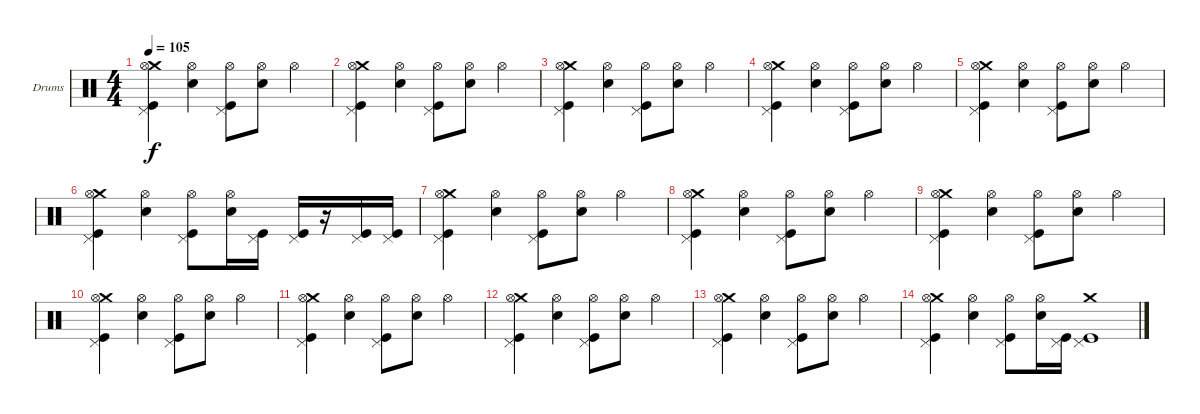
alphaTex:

\defaultSystemsLayout 4
\bracketExtendMode groupsimilarinstruments
\firstSystemTrackNameOrientation horizontal
\otherSystemsTrackNameOrientation horizontal
\track ("Е. Кулаков" "Drums") {instrument percussion}
\staff {score}
\articulation defaults
\ts (4 4)
\tempo 105
\clef neutral
\ks c
("Crash medium (hit)" "Pedal Hi-Hat (hit)" "Kick (hit)" "Hi-Hat (open)").4{dy f} ("Snare (hit) 2" "Hi-Hat (open)").4 ("Pedal Hi-Hat (hit)" "Kick (hit)" "Hi-Hat (open)").8 ("Snare (hit) 2" "Hi-Hat (open)").8 "Hi-Hat (open)".4 |
("Crash medium (hit)" "Pedal Hi-Hat (hit)" "Kick (hit)" "Hi-Hat (open)").4 ("Snare (hit) 2" "Hi-Hat (open)").4 ("Pedal Hi-Hat (hit)" "Kick (hit)" "Hi-Hat (open)").8 ("Snare (hit) 2" "Hi-Hat (open)").8 "Hi-Hat (open)".4 |
("Crash medium (hit)" "Pedal Hi-Hat (hit)" "Kick (hit)" "Hi-Hat (open)").4 ("Snare (hit) 2" "Hi-Hat (open)").4 ("Pedal Hi-Hat (hit)" "Kick (hit)" "Hi-Hat (open)").8 ("Snare (hit) 2" "Hi-Hat (open)").8 "Hi-Hat (open)".4 |
("Crash medium (hit)" "Pedal Hi-Hat (hit)" "Kick (hit)" "Hi-Hat (open)").4 ("Snare (hit) 2" "Hi-Hat (open)").4 ("Pedal Hi-Hat (hit)" "Kick (hit)" "Hi-Hat (open)").8 ("Snare (hit) 2" "Hi-Hat (open)").8 "Hi-Hat (open)".4 |
("Crash medium (hit)" "Pedal Hi-Hat (hit)" "Kick (hit)" "Hi-Hat (open)").4 ("Snare (hit) 2" "Hi-Hat (open)").4 ("Pedal Hi-Hat (hit)" "Kick (hit)" "Hi-Hat (open)").8 ("Snare (hit) 2" "Hi-Hat (open)").8 "Hi-Hat (open)".4 |
("Crash medium (hit)" "Pedal Hi-Hat (hit)" "Kick (hit)" "Hi-Hat (open)").4 ("Snare (hit) 2" "Hi-Hat (open)").4 ("Pedal Hi-Hat (hit)" "Kick (hit)" "Hi-Hat (open)").8 ("Snare (hit) 2" "Hi-Hat (open)").16 ("Pedal Hi-Hat (hit)" "Kick (hit)").16 ("Pedal Hi-Hat (hit)" "Kick (hit)").16 r.16 ("Pedal Hi-Hat (hit)" "Kick (hit)").16 ("Pedal Hi-Hat (hit)" "Kick (hit)").16 |
("Crash medium (hit)" "Pedal Hi-Hat (hit)" "Kick (hit)" "Hi-Hat (open)").4 ("Snare (hit) 2" "Hi-Hat (open)").4 ("Pedal Hi-Hat (hit)" "Kick (hit)" "Hi-Hat (open)").8 ("Snare (hit) 2" "Hi-Hat (open)").8 "Hi-Hat (open)".4 |
("Crash medium (hit)" "Pedal Hi-Hat (hit)" "Kick (hit)" "Hi-Hat (open)").4 ("Snare (hit) 2" "Hi-Hat (open)").4 ("Pedal Hi-Hat (hit)" "Kick (hit)" "Hi-Hat (open)").8 ("Snare (hit) 2" "Hi-Hat (open)").8 "Hi-Hat (open)".4 |
("Crash medium (hit)" "Pedal Hi-Hat (hit)" "Kick (hit)" "Hi-Hat (open)").4 ("Snare (hit) 2" "Hi-Hat (open)").4 ("Pedal Hi-Hat (hit)" "Kick (hit)" "Hi-Hat (open)").8 ("Snare (hit) 2" "Hi-Hat (open)").8 "Hi-Hat (open)".4 |
("Crash medium (hit)" "Pedal Hi-Hat (hit)" "Kick (hit)" "Hi-Hat (open)").4 ("Snare (hit) 2" "Hi-Hat (open)").4 ("Pedal Hi-Hat (hit)" "Kick (hit)" "Hi-Hat (open)").8 ("Snare (hit) 2" "Hi-Hat (open)").8 "Hi-Hat (open)".4 |
("Crash medium (hit)" "Pedal Hi-Hat (hit)" "Kick (hit)" "Hi-Hat (open)").4 ("Snare (hit) 2" "Hi-Hat (open)").4 ("Pedal Hi-Hat (hit)" "Kick (hit)" "Hi-Hat (open)").8 ("Snare (hit) 2" "Hi-Hat (open)").8 "Hi-Hat (open)".4 |
("Crash medium (hit)" "Pedal Hi-Hat (hit)" "Kick (hit)" "Hi-Hat (open)").4 ("Snare (hit) 2" "Hi-Hat (open)").4 ("Pedal Hi-Hat (hit)" "Kick (hit)" "Hi-Hat (open)").8 ("Snare (hit) 2" "Hi-Hat (open)").8 "Hi-Hat (open)".4 |
("Crash medium (hit)" "Pedal Hi-Hat (hit)" "Kick (hit)" "Hi-Hat (open)").4 ("Snare (hit) 2" "Hi-Hat (open)").4 ("Pedal Hi-Hat (hit)" "Kick (hit)" "Hi-Hat (open)").8 ("Snare (hit) 2" "Hi-Hat (open)").8 "Hi-Hat (open)".4 |
("Crash medium (hit)" "Pedal Hi-Hat (hit)" "Kick (hit)" "Hi-Hat (open)").4 ("Snare (hit) 2" "Hi-Hat (open)").4 ("Pedal Hi-Hat (hit)" "Kick (hit)" "Hi-Hat (open)").8 ("Snare (hit) 2" "Hi-Hat (open)").16 ("Pedal Hi-Hat (hit)" "Kick (hit)").16 ("Pedal Hi-Hat (hit)" "Kick (hit)" "Crash medium (hit)").1
